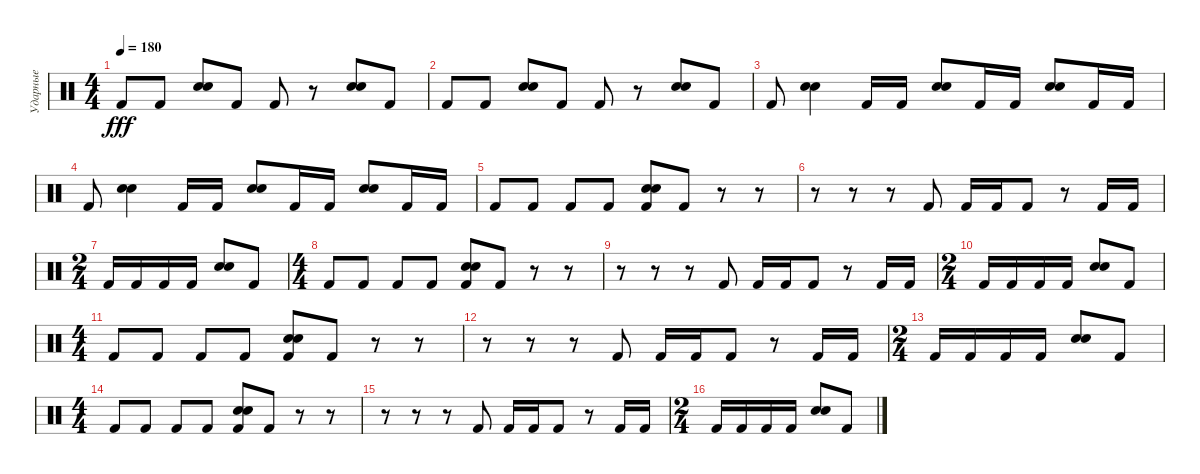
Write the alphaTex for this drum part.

\track ("Ударные" "Ударные") {instrument percussion}
\staff {score}
\articulation defaults
\ts (4 4)
\tempo 180
\clef neutral
\ks c "Kick (hit) 2".8{dy fff} "Kick (hit) 2".8
("Electric Snare (hit)" "Snare (hit) 2").8 "Kick (hit) 2".8 "Kick (hit) 2".8 r.8 ("Electric Snare (hit)" "Snare (hit) 2").8 "Kick (hit) 2".8 |
"Kick (hit) 2".8 "Kick (hit) 2".8 ("Electric Snare (hit)" "Snare (hit) 2").8 "Kick (hit) 2".8 "Kick (hit) 2".8 r.8 ("Electric Snare (hit)" "Snare (hit) 2").8 "Kick (hit) 2".8 |
"Kick (hit) 2".8 ("Snare (hit) 2" "Electric Snare (hit)").4 "Kick (hit) 2".16 "Kick (hit) 2".16 ("Snare (hit) 2" "Electric Snare (hit)").8 "Kick (hit) 2".16 "Kick (hit) 2".16 ("Snare (hit) 2" "Electric Snare (hit)").8 "Kick (hit) 2".16 "Kick (hit) 2".16 |
"Kick (hit) 2".8 ("Snare (hit) 2" "Electric Snare (hit)").4 "Kick (hit) 2".16 "Kick (hit) 2".16 ("Snare (hit) 2" "Electric Snare (hit)").8 "Kick (hit) 2".16 "Kick (hit) 2".16 ("Snare (hit) 2" "Electric Snare (hit)").8 "Kick (hit) 2".16 "Kick (hit) 2".16 |
"Kick (hit) 2".8 "Kick (hit) 2".8 "Kick (hit) 2".8 "Kick (hit) 2".8 ("Electric Snare (hit)" "Snare (hit) 2" "Kick (hit) 2").8 "Kick (hit) 2".8 r.8 r.8 |
r.8 r.8 r.8 "Kick (hit) 2".8 "Kick (hit) 2".16 "Kick (hit) 2".16 "Kick (hit) 2".8 r.8 "Kick (hit) 2".16 "Kick (hit) 2".16 |
\ts (2 4)
"Kick (hit) 2".16 "Kick (hit) 2".16 "Kick (hit) 2".16 "Kick (hit) 2".16 ("Electric Snare (hit)" "Snare (hit) 2").8 "Kick (hit) 2".8 |
\ts (4 4)
"Kick (hit) 2".8 "Kick (hit) 2".8 "Kick (hit) 2".8 "Kick (hit) 2".8 ("Electric Snare (hit)" "Snare (hit) 2" "Kick (hit) 2").8 "Kick (hit) 2".8 r.8 r.8 |
r.8 r.8 r.8 "Kick (hit) 2".8 "Kick (hit) 2".16 "Kick (hit) 2".16 "Kick (hit) 2".8 r.8 "Kick (hit) 2".16 "Kick (hit) 2".16 |
\ts (2 4)
"Kick (hit) 2".16 "Kick (hit) 2".16 "Kick (hit) 2".16 "Kick (hit) 2".16 ("Electric Snare (hit)" "Snare (hit) 2").8 "Kick (hit) 2".8 |
\ts (4 4)
"Kick (hit) 2".8 "Kick (hit) 2".8 "Kick (hit) 2".8 "Kick (hit) 2".8 ("Electric Snare (hit)" "Snare (hit) 2" "Kick (hit) 2").8 "Kick (hit) 2".8 r.8 r.8 |
r.8 r.8 r.8 "Kick (hit) 2".8 "Kick (hit) 2".16 "Kick (hit) 2".16 "Kick (hit) 2".8 r.8 "Kick (hit) 2".16 "Kick (hit) 2".16 |
\ts (2 4)
"Kick (hit) 2".16 "Kick (hit) 2".16 "Kick (hit) 2".16 "Kick (hit) 2".16 ("Electric Snare (hit)" "Snare (hit) 2").8 "Kick (hit) 2".8 |
\ts (4 4)
"Kick (hit) 2".8 "Kick (hit) 2".8 "Kick (hit) 2".8 "Kick (hit) 2".8 ("Electric Snare (hit)" "Snare (hit) 2" "Kick (hit) 2").8 "Kick (hit) 2".8 r.8 r.8 |
r.8 r.8 r.8 "Kick (hit) 2".8 "Kick (hit) 2".16 "Kick (hit) 2".16 "Kick (hit) 2".8 r.8 "Kick (hit) 2".16 "Kick (hit) 2".16 |
\ts (2 4)
"Kick (hit) 2".16 "Kick (hit) 2".16 "Kick (hit) 2".16 "Kick (hit) 2".16 ("Electric Snare (hit)" "Snare (hit) 2").8 "Kick (hit) 2".8
